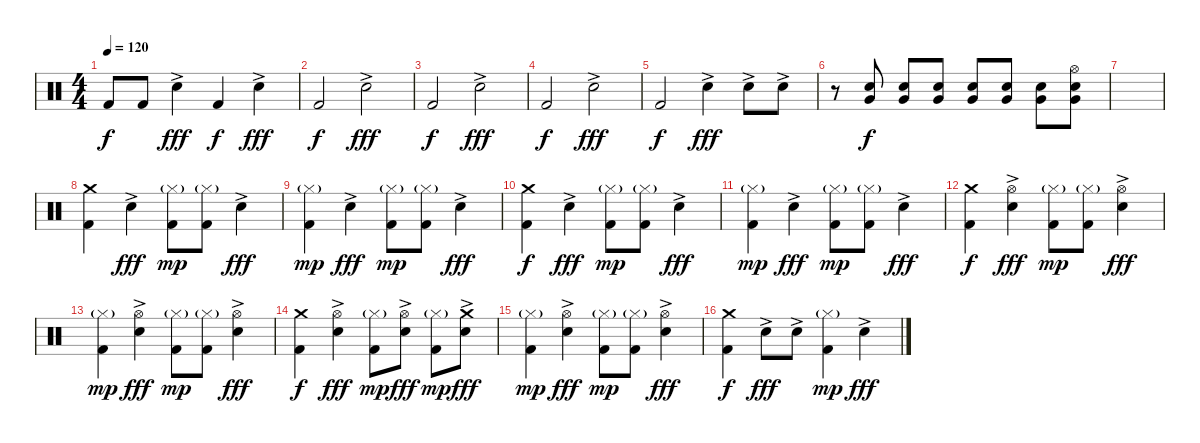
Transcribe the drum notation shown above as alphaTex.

\track "" {instrument percussion}
\staff {score}
\articulation defaults
\ts (4 4)
\tempo 120
\clef neutral
\ks c "Kick (hit) 2".8{dy f} "Kick (hit) 2".8 "Electric Snare (hit)"{ac}.4{dy fff} "Kick (hit) 2".4{dy f} "Electric Snare (hit)"{ac}.4{dy fff}
|
"Kick (hit) 2".2{dy f} "Electric Snare (hit)"{ac}.2{dy fff} |
"Kick (hit) 2".2{dy f} "Electric Snare (hit)"{ac}.2{dy fff} |
"Kick (hit) 2".2{dy f} "Electric Snare (hit)"{ac}.2{dy fff} |
"Kick (hit) 2".2{dy f} "Electric Snare (hit)"{ac}.4{dy fff} "Electric Snare (hit)"{ac}.8 "Electric Snare (hit)"{ac}.8 |
r.8 ("Electric Snare (hit)" "Very Low Tom (hit)").8{dy f} ("Electric Snare (hit)" "Very Low Tom (hit)").8 ("Electric Snare (hit)" "Very Low Tom (hit)").8 ("Electric Snare (hit)" "Very Low Tom (hit)").8 ("Electric Snare (hit)" "Very Low Tom (hit)").8 ("Electric Snare (hit)" "Very Low Tom (hit)").8 ("Hi-Hat (open)" "Electric Snare (hit)" "Very Low Tom (hit)").8 |
|
("Kick (hit) 2" "Crash medium (hit)").4 "Electric Snare (hit)"{ac}.4{dy fff} ("Kick (hit) 2" "Hi-Hat (closed)"{g}).8{dy mp} ("Kick (hit) 2" "Hi-Hat (closed)"{g}).8 "Electric Snare (hit)"{ac}.4{dy fff} |
("Kick (hit) 2" "Hi-Hat (closed)"{g}).4{dy mp} "Electric Snare (hit)"{ac}.4{dy fff} ("Kick (hit) 2" "Hi-Hat (closed)"{g}).8{dy mp} ("Kick (hit) 2" "Hi-Hat (closed)"{g}).8 "Electric Snare (hit)"{ac}.4{dy fff} |
("Kick (hit) 2" "Crash medium (hit)").4{dy f} "Electric Snare (hit)"{ac}.4{dy fff} ("Kick (hit) 2" "Hi-Hat (closed)"{g}).8{dy mp} ("Kick (hit) 2" "Hi-Hat (closed)"{g}).8 "Electric Snare (hit)"{ac}.4{dy fff} |
("Kick (hit) 2" "Hi-Hat (closed)"{g}).4{dy mp} "Electric Snare (hit)"{ac}.4{dy fff} ("Kick (hit) 2" "Hi-Hat (closed)"{g}).8{dy mp} ("Kick (hit) 2" "Hi-Hat (closed)"{g}).8 "Electric Snare (hit)"{ac}.4{dy fff} |
("Kick (hit) 2" "Crash medium (hit)").4{dy f} ("Electric Snare (hit)"{ac} "Hi-Hat (open)").4{dy fff} ("Kick (hit) 2" "Hi-Hat (closed)"{g}).8{dy mp} ("Kick (hit) 2" "Hi-Hat (closed)"{g}).8 ("Electric Snare (hit)"{ac} "Hi-Hat (open)").4{dy fff} |
("Kick (hit) 2" "Hi-Hat (closed)"{g}).4{dy mp} ("Electric Snare (hit)"{ac} "Hi-Hat (open)").4{dy fff} ("Kick (hit) 2" "Hi-Hat (closed)"{g}).8{dy mp} ("Kick (hit) 2" "Hi-Hat (closed)"{g}).8 ("Electric Snare (hit)"{ac} "Hi-Hat (open)").4{dy fff} |
("Kick (hit) 2" "Crash medium (hit)").4{dy f} ("Electric Snare (hit)"{ac} "Hi-Hat (open)").4{dy fff} ("Kick (hit) 2" "Hi-Hat (closed)"{g}).8{dy mp} ("Electric Snare (hit)"{ac} "Hi-Hat (open)").8{dy fff} ("Kick (hit) 2" "Hi-Hat (closed)"{g}).8{dy mp} ("Electric Snare (hit)"{ac} "Crash medium (hit)").8{dy fff} |
("Kick (hit) 2" "Hi-Hat (closed)"{g}).4{dy mp} ("Electric Snare (hit)"{ac} "Hi-Hat (open)").4{dy fff} ("Kick (hit) 2" "Hi-Hat (closed)"{g}).8{dy mp} ("Kick (hit) 2" "Hi-Hat (closed)"{g}).8 ("Electric Snare (hit)"{ac} "Hi-Hat (open)").4{dy fff} |
("Kick (hit) 2" "Crash medium (hit)").4{dy f} "Electric Snare (hit)"{ac}.8{dy fff} "Electric Snare (hit)"{ac}.8 ("Kick (hit) 2" "Hi-Hat (closed)"{g}).4{dy mp} "Electric Snare (hit)"{ac}.4{dy fff}
